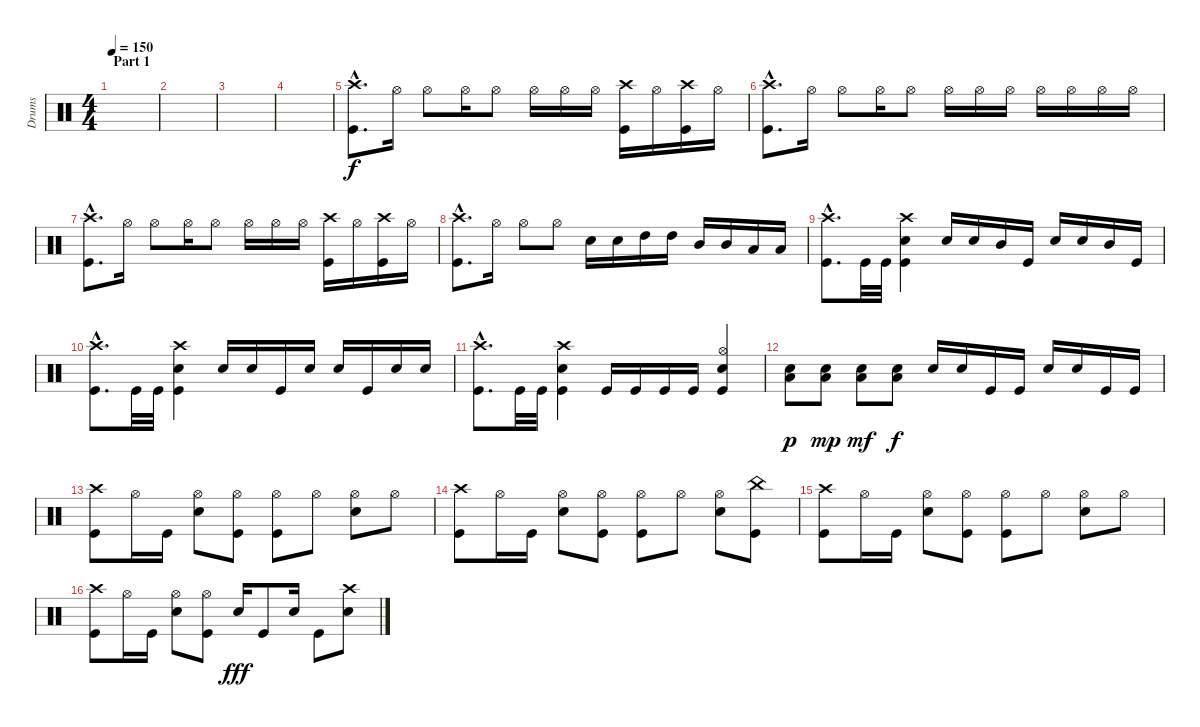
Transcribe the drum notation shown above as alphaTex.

\track ("Drums" "Drums") {instrument percussion}
\staff {score}
\articulation defaults
\ts (4 4)
\section ("" "Part 1")
\tempo 150
\clef neutral
\ks c
|
|
|
|
("Crash high (hit)"{hac} "Kick (hit)").8{d} "Hi-Hat (open)".16 "Hi-Hat (open)".8 "Hi-Hat (open)".16 "Hi-Hat (open)".8 "Hi-Hat (open)".16 "Hi-Hat (open)".16 "Hi-Hat (open)".16 ("Crash high (hit)" "Kick (hit)").16 "Hi-Hat (open)".16 ("Crash high (hit)" "Kick (hit)").16 "Hi-Hat (open)".16 |
("Crash high (hit)"{hac} "Kick (hit)").8{d} "Hi-Hat (open)".16 "Hi-Hat (open)".8 "Hi-Hat (open)".16 "Hi-Hat (open)".8 "Hi-Hat (open)".16 "Hi-Hat (open)".16 "Hi-Hat (open)".16 "Hi-Hat (open)".16 "Hi-Hat (open)".16 "Hi-Hat (open)".16 "Hi-Hat (open)".16 |
("Crash high (hit)"{hac} "Kick (hit)").8{d} "Hi-Hat (open)".16 "Hi-Hat (open)".8 "Hi-Hat (open)".16 "Hi-Hat (open)".8 "Hi-Hat (open)".16 "Hi-Hat (open)".16 "Hi-Hat (open)".16 ("Crash high (hit)" "Kick (hit)").16 "Hi-Hat (open)".16 ("Crash high (hit)" "Kick (hit)").16 "Hi-Hat (open)".16 |
("Crash high (hit)"{hac} "Kick (hit)").8{d} "Hi-Hat (open)".16 "Hi-Hat (open)".8 "Hi-Hat (open)".8 "Snare (hit) 2".16 "Snare (hit) 2".16 "High Tom (hit)".16 "High Tom (hit)".16 "Mid Tom (hit)".16 "Mid Tom (hit)".16 "Low Tom (hit)".16 "Low Tom (hit)".16 |
("Crash high (hit)"{hac} "Kick (hit)"{hac}).8{d} "Kick (hit)".32 "Kick (hit)".32 ("Crash high (hit)" "Snare (hit) 2" "Kick (hit)").4 "Snare (hit) 2".16 "Snare (hit) 2".16 "Mid Tom (hit)".16 "Kick (hit)".16 "Snare (hit) 2".16 "Snare (hit) 2".16 "Mid Tom (hit)".16 "Kick (hit)".16 |
("Crash high (hit)"{hac} "Kick (hit)"{hac}).8{d} "Kick (hit)".32 "Kick (hit)".32 ("Crash high (hit)" "Snare (hit) 2" "Kick (hit)").4 "Snare (hit) 2".16 "Snare (hit) 2".16 "Kick (hit)".16 "Snare (hit) 2".16 "Snare (hit) 2".16 "Kick (hit)".16 "Snare (hit) 2".16 "Snare (hit) 2".16 |
("Crash high (hit)"{hac} "Kick (hit)"{hac}).8{d} "Kick (hit)".32 "Kick (hit)".32 ("Crash high (hit)" "Snare (hit) 2" "Kick (hit)").4 "Kick (hit)".16 "Kick (hit)".16 "Kick (hit)".16 "Kick (hit)".16 ("Hi-Hat (open)" "Snare (hit) 2" "Kick (hit)").4 |
("Snare (hit) 2" "Low Tom (hit)").8{dy p} ("Snare (hit) 2" "Low Tom (hit)").8{dy mp} ("Snare (hit) 2" "Low Tom (hit)").8{dy mf} ("Snare (hit) 2" "Low Tom (hit)").8{dy f} "Snare (hit) 2".16 "Snare (hit) 2".16 "Kick (hit)".16 "Kick (hit)".16 "Snare (hit) 2".16 "Snare (hit) 2".16 "Kick (hit)".16 "Kick (hit)".16 |
("Crash high (hit)" "Kick (hit)").8 "Hi-Hat (open)".16 "Kick (hit)".16 ("Hi-Hat (open)" "Snare (hit) 2").8 ("Hi-Hat (open)" "Kick (hit)").8 ("Hi-Hat (open)" "Kick (hit)").8 "Hi-Hat (open)".8 ("Hi-Hat (open)" "Snare (hit) 2").8 "Hi-Hat (open)".8 |
("Crash high (hit)" "Kick (hit)").8 "Hi-Hat (open)".16 "Kick (hit)".16 ("Hi-Hat (open)" "Snare (hit) 2").8 ("Hi-Hat (open)" "Kick (hit)").8 ("Hi-Hat (open)" "Kick (hit)").8 "Hi-Hat (open)".8 ("Hi-Hat (open)" "Snare (hit) 2").8 ("China (hit)" "Kick (hit)").8 |
("Crash high (hit)" "Kick (hit)").8 "Hi-Hat (open)".16 "Kick (hit)".16 ("Hi-Hat (open)" "Snare (hit) 2").8 ("Hi-Hat (open)" "Kick (hit)").8 ("Hi-Hat (open)" "Kick (hit)").8 "Hi-Hat (open)".8 ("Hi-Hat (open)" "Snare (hit) 2").8 "Hi-Hat (open)".8 |
("Crash high (hit)" "Kick (hit)").8 "Hi-Hat (open)".16 "Kick (hit)".16 ("Hi-Hat (open)" "Snare (hit) 2").8 ("Hi-Hat (open)" "Kick (hit)").8 "Snare (hit) 2".16{dy fff} "Kick (hit)".8 "Snare (hit) 2".16 "Kick (hit)".8 ("Crash high (hit)" "Snare (hit) 2").8
